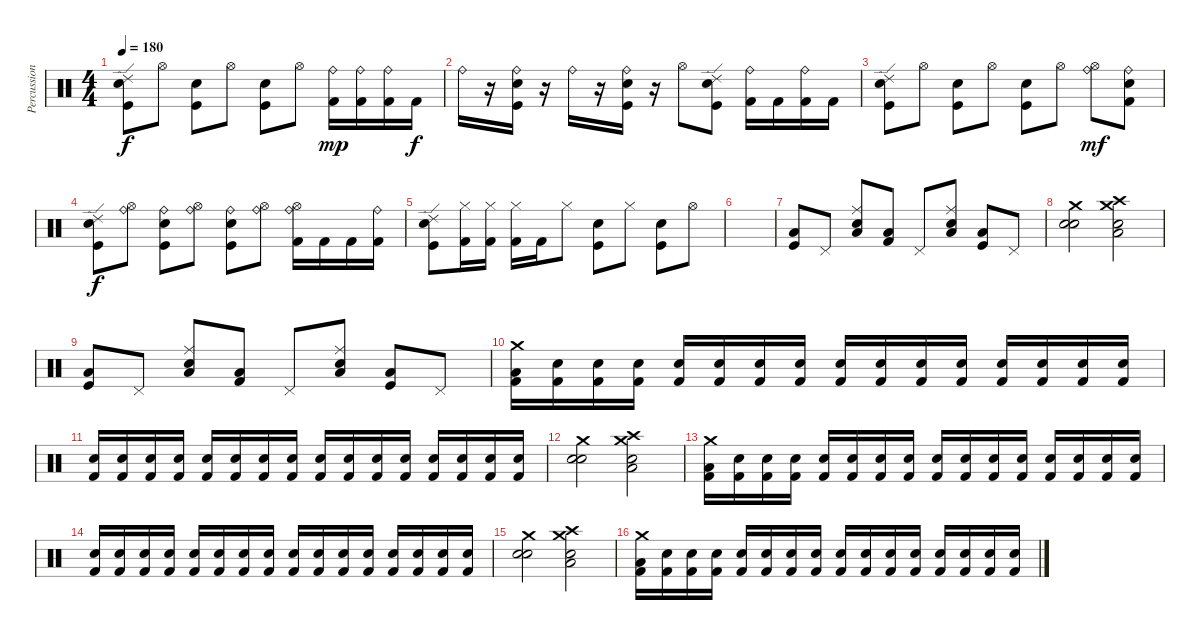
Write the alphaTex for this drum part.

\track ("Percussion" "Percussion") {instrument percussion}
\staff {score}
\articulation defaults
\ts (4 4)
\tempo 180
\clef neutral
\ks c
("Ride (edge) 2" "Snare (hit) 2" "Kick (hit)").8{dy f} "Hi-Hat (open)".8 ("Snare (hit) 2" "Kick (hit)").8 "Hi-Hat (open)".8 ("Snare (hit) 2" "Kick (hit)").8 "Hi-Hat (open)".8 ("Ride (bell)" "Kick (hit) 2").16{dy mp} ("Ride (bell)" "Kick (hit) 2").16 ("Ride (bell)" "Kick (hit) 2").16 "Kick (hit) 2".16{dy f} |
"Ride (bell)".16 r.16 ("Ride (bell)" "Kick (hit)" "Snare (hit) 2").16 r.16 "Ride (bell)".16 r.16 ("Ride (bell)" "Kick (hit)" "Snare (hit) 2").16 r.16 "Hi-Hat (open)".8 ("Ride (edge) 2" "Kick (hit)" "Snare (hit) 2").8 ("Ride (bell)" "Kick (hit) 2").16 "Kick (hit) 2".16 ("Ride (bell)" "Kick (hit) 2").16 "Kick (hit) 2".16 |
("Ride (edge) 2" "Snare (hit) 2" "Kick (hit)").8 "Hi-Hat (open)".8 ("Snare (hit) 2" "Kick (hit)").8 "Hi-Hat (open)".8 ("Snare (hit) 2" "Kick (hit)").8 "Hi-Hat (open)".8 ("Ride (bell)" "Hi-Hat (open)").8{dy mf} ("Ride (bell)" "Snare (hit) 2" "Kick (hit) 2").8 |
("Ride (edge) 2" "Snare (hit) 2" "Kick (hit)").8{dy f} ("Ride (bell)" "Hi-Hat (open)").8 ("Ride (bell)" "Snare (hit) 2" "Kick (hit)").8 ("Ride (bell)" "Hi-Hat (open)").8 ("Ride (bell)" "Snare (hit) 2" "Kick (hit)").8 ("Ride (bell)" "Hi-Hat (open)").8 ("Ride (bell)" "Hi-Hat (open)" "Kick (hit) 2").16 "Kick (hit) 2".16 "Kick (hit) 2".16 ("Ride (bell)" "Kick (hit) 2").16 |
("Ride (edge) 2" "Snare (hit) 2" "Kick (hit)").8 ("Hi-Hat (closed)" "Kick (hit) 2").16 ("Hi-Hat (closed)" "Kick (hit) 2").16 ("Hi-Hat (closed)" "Kick (hit) 2").16 "Kick (hit) 2".16 "Hi-Hat (closed)".8 ("Snare (hit) 2" "Kick (hit)").8 "Hi-Hat (closed)".8 ("Snare (hit) 2" "Kick (hit)").8 "Hi-Hat (open)".8 |
|
("Low Tom (hit)" "Kick (hit)").8 "Pedal Hi-Hat (hit)".8 ("Ride (middle)" "Electric Snare (hit)" "Low Tom (hit)").8 ("Low Tom (hit)" "Kick (hit) 2").8 "Pedal Hi-Hat (hit)".8 ("Ride (middle)" "Electric Snare (hit)" "Low Tom (hit)").8 ("Low Tom (hit)" "Kick (hit)").8 "Pedal Hi-Hat (hit)".8 |
("Crash medium (hit)" "Electric Snare (hit)" "Snare (hit) 2").2 ("Crash medium (hit)" "Crash high (hit)" "Low Tom (hit)" "Electric Snare (hit)").2 |
("Low Tom (hit)" "Kick (hit)").8 "Pedal Hi-Hat (hit)".8 ("Ride (middle)" "Electric Snare (hit)" "Low Tom (hit)").8 ("Low Tom (hit)" "Kick (hit) 2").8 "Pedal Hi-Hat (hit)".8 ("Ride (middle)" "Electric Snare (hit)" "Low Tom (hit)").8 ("Low Tom (hit)" "Kick (hit)").8 "Pedal Hi-Hat (hit)".8 |
("Crash medium (hit)" "Low Tom (hit)" "Kick (hit) 2").16 ("Electric Snare (hit)" "Kick (hit) 2").16 ("Snare (hit) 2" "Kick (hit) 2").16 ("Electric Snare (hit)" "Kick (hit) 2").16 ("Snare (hit) 2" "Kick (hit) 2").16 ("Electric Snare (hit)" "Kick (hit) 2").16 ("Snare (hit) 2" "Kick (hit) 2").16 ("Electric Snare (hit)" "Kick (hit) 2").16 ("Snare (hit) 2" "Kick (hit) 2").16 ("Electric Snare (hit)" "Kick (hit) 2").16 ("Snare (hit) 2" "Kick (hit) 2").16 ("Electric Snare (hit)" "Kick (hit) 2").16 ("Snare (hit) 2" "Kick (hit) 2").16 ("Electric Snare (hit)" "Kick (hit) 2").16 ("Snare (hit) 2" "Kick (hit) 2").16 ("Electric Snare (hit)" "Kick (hit) 2").16 |
("Snare (hit) 2" "Kick (hit) 2").16 ("Electric Snare (hit)" "Kick (hit) 2").16 ("Snare (hit) 2" "Kick (hit) 2").16 ("Electric Snare (hit)" "Kick (hit) 2").16 ("Snare (hit) 2" "Kick (hit) 2").16 ("Electric Snare (hit)" "Kick (hit) 2").16 ("Snare (hit) 2" "Kick (hit) 2").16 ("Electric Snare (hit)" "Kick (hit) 2").16 ("Snare (hit) 2" "Kick (hit) 2").16 ("Electric Snare (hit)" "Kick (hit) 2").16 ("Snare (hit) 2" "Kick (hit) 2").16 ("Electric Snare (hit)" "Kick (hit) 2").16 ("Snare (hit) 2" "Kick (hit) 2").16 ("Electric Snare (hit)" "Kick (hit) 2").16 ("Snare (hit) 2" "Kick (hit) 2").16 ("Electric Snare (hit)" "Kick (hit) 2").16 |
("Crash medium (hit)" "Electric Snare (hit)" "Snare (hit) 2").2 ("Crash medium (hit)" "Crash high (hit)" "Low Tom (hit)" "Electric Snare (hit)").2 |
("Crash medium (hit)" "Low Tom (hit)" "Kick (hit) 2").16 ("Electric Snare (hit)" "Kick (hit) 2").16 ("Snare (hit) 2" "Kick (hit) 2").16 ("Electric Snare (hit)" "Kick (hit) 2").16 ("Snare (hit) 2" "Kick (hit) 2").16 ("Electric Snare (hit)" "Kick (hit) 2").16 ("Snare (hit) 2" "Kick (hit) 2").16 ("Electric Snare (hit)" "Kick (hit) 2").16 ("Snare (hit) 2" "Kick (hit) 2").16 ("Electric Snare (hit)" "Kick (hit) 2").16 ("Snare (hit) 2" "Kick (hit) 2").16 ("Electric Snare (hit)" "Kick (hit) 2").16 ("Snare (hit) 2" "Kick (hit) 2").16 ("Electric Snare (hit)" "Kick (hit) 2").16 ("Snare (hit) 2" "Kick (hit) 2").16 ("Electric Snare (hit)" "Kick (hit) 2").16 |
("Snare (hit) 2" "Kick (hit) 2").16 ("Electric Snare (hit)" "Kick (hit) 2").16 ("Snare (hit) 2" "Kick (hit) 2").16 ("Electric Snare (hit)" "Kick (hit) 2").16 ("Snare (hit) 2" "Kick (hit) 2").16 ("Electric Snare (hit)" "Kick (hit) 2").16 ("Snare (hit) 2" "Kick (hit) 2").16 ("Electric Snare (hit)" "Kick (hit) 2").16 ("Snare (hit) 2" "Kick (hit) 2").16 ("Electric Snare (hit)" "Kick (hit) 2").16 ("Snare (hit) 2" "Kick (hit) 2").16 ("Electric Snare (hit)" "Kick (hit) 2").16 ("Snare (hit) 2" "Kick (hit) 2").16 ("Electric Snare (hit)" "Kick (hit) 2").16 ("Snare (hit) 2" "Kick (hit) 2").16 ("Electric Snare (hit)" "Kick (hit) 2").16 |
("Crash medium (hit)" "Electric Snare (hit)" "Snare (hit) 2").2 ("Crash medium (hit)" "Crash high (hit)" "Low Tom (hit)" "Electric Snare (hit)").2 |
("Crash medium (hit)" "Low Tom (hit)" "Kick (hit) 2").16 ("Electric Snare (hit)" "Kick (hit) 2").16 ("Snare (hit) 2" "Kick (hit) 2").16 ("Electric Snare (hit)" "Kick (hit) 2").16 ("Snare (hit) 2" "Kick (hit) 2").16 ("Electric Snare (hit)" "Kick (hit) 2").16 ("Snare (hit) 2" "Kick (hit) 2").16 ("Electric Snare (hit)" "Kick (hit) 2").16 ("Snare (hit) 2" "Kick (hit) 2").16 ("Electric Snare (hit)" "Kick (hit) 2").16 ("Snare (hit) 2" "Kick (hit) 2").16 ("Electric Snare (hit)" "Kick (hit) 2").16 ("Snare (hit) 2" "Kick (hit) 2").16 ("Electric Snare (hit)" "Kick (hit) 2").16 ("Snare (hit) 2" "Kick (hit) 2").16 ("Electric Snare (hit)" "Kick (hit) 2").16
